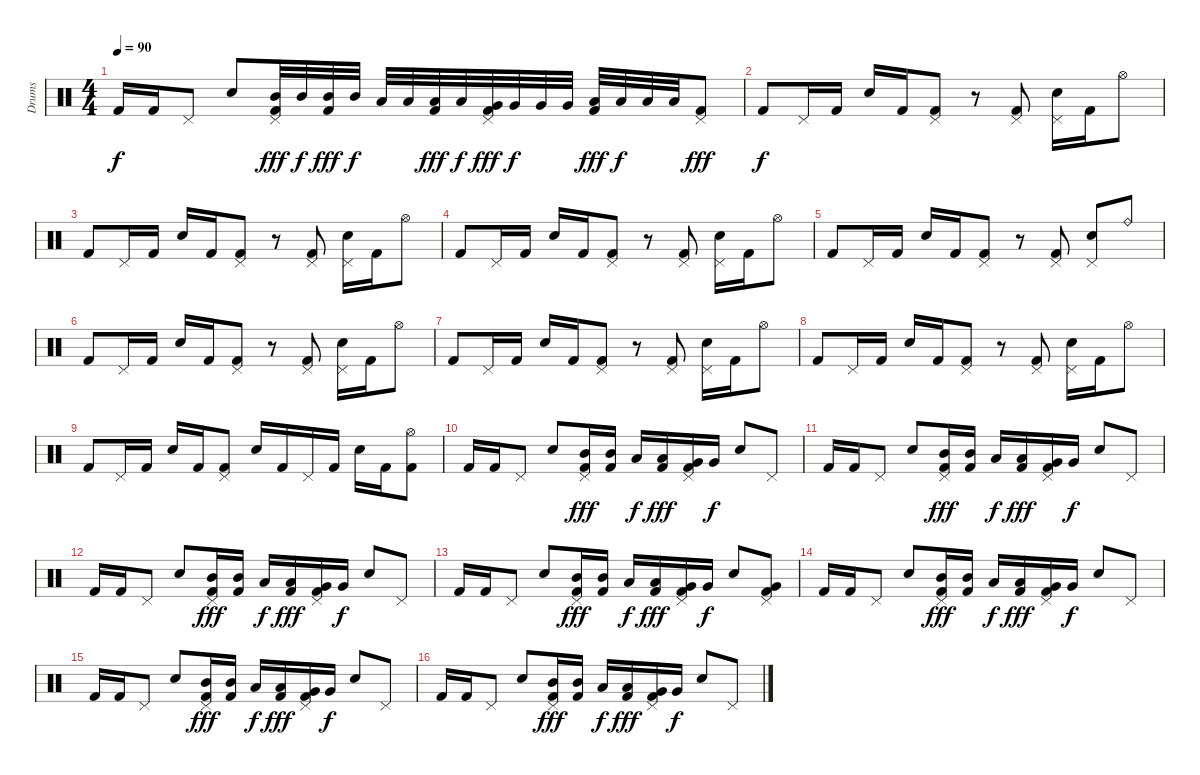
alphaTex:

\track ("Drums" "Drums") {instrument percussion}
\staff {score}
\articulation defaults
\ts (4 4)
\tempo 90
\clef neutral
\ks c "Kick (hit) 2".16{dy f} "Kick (hit) 2".16 "Pedal Hi-Hat (hit)".8 "Electric Snare (hit)".8
("Pedal Hi-Hat (hit)" "Mid Tom (hit)" "Kick (hit) 2").32{dy fff} "Mid Tom (hit)".32{dy f} ("Mid Tom (hit)" "Kick (hit) 2").32{dy fff} "Mid Tom (hit)".32{dy f} "Low Tom (hit)".32 "Low Tom (hit)".32 ("Low Tom (hit)" "Kick (hit) 2").32{dy fff} "Low Tom (hit)".32{dy f} ("Pedal Hi-Hat (hit)" "Very Low Tom (hit)" "Kick (hit) 2").32{dy fff} "Very Low Tom (hit)".32{dy f} "Very Low Tom (hit)".32 "Very Low Tom (hit)".32 ("Low Floor Tom (hit)" "Kick (hit) 2").32{dy fff} "Low Floor Tom (hit)".32{dy f} "Low Floor Tom (hit)".32 "Low Floor Tom (hit)".32 ("Pedal Hi-Hat (hit)" "Kick (hit) 2").8{dy fff} |
"Kick (hit) 2".8{dy f} "Pedal Hi-Hat (hit)".16 "Kick (hit) 2".16 "Electric Snare (hit)".16 "Kick (hit) 2".16 ("Pedal Hi-Hat (hit)" "Kick (hit) 2").8 r.8 ("Pedal Hi-Hat (hit)" "Kick (hit) 2").8 ("Pedal Hi-Hat (hit)" "Electric Snare (hit)").16 "Kick (hit) 2".16 "Hi-Hat (open)".8 |
"Kick (hit) 2".8 "Pedal Hi-Hat (hit)".16 "Kick (hit) 2".16 "Electric Snare (hit)".16 "Kick (hit) 2".16 ("Pedal Hi-Hat (hit)" "Kick (hit) 2").8 r.8 ("Pedal Hi-Hat (hit)" "Kick (hit) 2").8 ("Pedal Hi-Hat (hit)" "Electric Snare (hit)").16 "Kick (hit) 2".16 "Hi-Hat (open)".8 |
"Kick (hit) 2".8 "Pedal Hi-Hat (hit)".16 "Kick (hit) 2".16 "Electric Snare (hit)".16 "Kick (hit) 2".16 ("Pedal Hi-Hat (hit)" "Kick (hit) 2").8 r.8 ("Pedal Hi-Hat (hit)" "Kick (hit) 2").8 ("Pedal Hi-Hat (hit)" "Electric Snare (hit)").16 "Kick (hit) 2".16 "Hi-Hat (open)".8 |
"Kick (hit) 2".8 "Pedal Hi-Hat (hit)".16 "Kick (hit) 2".16 "Electric Snare (hit)".16 "Kick (hit) 2".16 ("Pedal Hi-Hat (hit)" "Kick (hit) 2").8 r.8 ("Pedal Hi-Hat (hit)" "Kick (hit) 2").8 ("Pedal Hi-Hat (hit)" "Electric Snare (hit)").8 "Ride (bell)".8 |
"Kick (hit) 2".8 "Pedal Hi-Hat (hit)".16 "Kick (hit) 2".16 "Electric Snare (hit)".16 "Kick (hit) 2".16 ("Pedal Hi-Hat (hit)" "Kick (hit) 2").8 r.8 ("Pedal Hi-Hat (hit)" "Kick (hit) 2").8 ("Pedal Hi-Hat (hit)" "Electric Snare (hit)").16 "Kick (hit) 2".16 "Hi-Hat (open)".8 |
"Kick (hit) 2".8 "Pedal Hi-Hat (hit)".16 "Kick (hit) 2".16 "Electric Snare (hit)".16 "Kick (hit) 2".16 ("Pedal Hi-Hat (hit)" "Kick (hit) 2").8 r.8 ("Pedal Hi-Hat (hit)" "Kick (hit) 2").8 ("Pedal Hi-Hat (hit)" "Electric Snare (hit)").16 "Kick (hit) 2".16 "Hi-Hat (open)".8 |
"Kick (hit) 2".8 "Pedal Hi-Hat (hit)".16 "Kick (hit) 2".16 "Electric Snare (hit)".16 "Kick (hit) 2".16 ("Pedal Hi-Hat (hit)" "Kick (hit) 2").8 r.8 ("Pedal Hi-Hat (hit)" "Kick (hit) 2").8 ("Pedal Hi-Hat (hit)" "Electric Snare (hit)").16 "Kick (hit) 2".16 "Hi-Hat (open)".8 |
"Kick (hit) 2".8 "Pedal Hi-Hat (hit)".16 "Kick (hit) 2".16 "Electric Snare (hit)".16 "Kick (hit) 2".16 ("Pedal Hi-Hat (hit)" "Kick (hit) 2").8 "Electric Snare (hit)".16 "Kick (hit) 2".16 "Pedal Hi-Hat (hit)".16 "Kick (hit) 2".16 "Electric Snare (hit)".16 "Kick (hit) 2".16 ("Hi-Hat (open)" "Kick (hit) 2").8 |
"Kick (hit) 2".16 "Kick (hit) 2".16 "Pedal Hi-Hat (hit)".8 "Electric Snare (hit)".8 ("Pedal Hi-Hat (hit)" "Mid Tom (hit)" "Kick (hit) 2").16{dy fff} ("Mid Tom (hit)" "Kick (hit) 2").16 "Low Tom (hit)".16{dy f} ("Low Tom (hit)" "Kick (hit) 2").16{dy fff} ("Pedal Hi-Hat (hit)" "Very Low Tom (hit)" "Kick (hit) 2").16 "Very Low Tom (hit)".16{dy f} "Electric Snare (hit)".8 "Pedal Hi-Hat (hit)".8 |
"Kick (hit) 2".16 "Kick (hit) 2".16 "Pedal Hi-Hat (hit)".8 "Electric Snare (hit)".8 ("Pedal Hi-Hat (hit)" "Mid Tom (hit)" "Kick (hit) 2").16{dy fff} ("Mid Tom (hit)" "Kick (hit) 2").16 "Low Tom (hit)".16{dy f} ("Low Tom (hit)" "Kick (hit) 2").16{dy fff} ("Pedal Hi-Hat (hit)" "Very Low Tom (hit)" "Kick (hit) 2").16 "Very Low Tom (hit)".16{dy f} "Electric Snare (hit)".8 "Pedal Hi-Hat (hit)".8 |
"Kick (hit) 2".16 "Kick (hit) 2".16 "Pedal Hi-Hat (hit)".8 "Electric Snare (hit)".8 ("Pedal Hi-Hat (hit)" "Mid Tom (hit)" "Kick (hit) 2").16{dy fff} ("Mid Tom (hit)" "Kick (hit) 2").16 "Low Tom (hit)".16{dy f} ("Low Tom (hit)" "Kick (hit) 2").16{dy fff} ("Pedal Hi-Hat (hit)" "Very Low Tom (hit)" "Kick (hit) 2").16 "Very Low Tom (hit)".16{dy f} "Electric Snare (hit)".8 "Pedal Hi-Hat (hit)".8 |
"Kick (hit) 2".16 "Kick (hit) 2".16 "Pedal Hi-Hat (hit)".8 "Electric Snare (hit)".8 ("Pedal Hi-Hat (hit)" "Mid Tom (hit)" "Kick (hit) 2").16{dy fff} ("Mid Tom (hit)" "Kick (hit) 2").16 "Low Tom (hit)".16{dy f} ("Low Tom (hit)" "Kick (hit) 2").16{dy fff} ("Pedal Hi-Hat (hit)" "Very Low Tom (hit)" "Kick (hit) 2").16 "Very Low Tom (hit)".16{dy f} "Electric Snare (hit)".8 ("Pedal Hi-Hat (hit)" "Very Low Tom (hit)" "Kick (hit) 2").8 |
"Kick (hit) 2".16 "Kick (hit) 2".16 "Pedal Hi-Hat (hit)".8 "Electric Snare (hit)".8 ("Pedal Hi-Hat (hit)" "Mid Tom (hit)" "Kick (hit) 2").16{dy fff} ("Mid Tom (hit)" "Kick (hit) 2").16 "Low Tom (hit)".16{dy f} ("Low Tom (hit)" "Kick (hit) 2").16{dy fff} ("Pedal Hi-Hat (hit)" "Very Low Tom (hit)" "Kick (hit) 2").16 "Very Low Tom (hit)".16{dy f} "Electric Snare (hit)".8 "Pedal Hi-Hat (hit)".8 |
"Kick (hit) 2".16 "Kick (hit) 2".16 "Pedal Hi-Hat (hit)".8 "Electric Snare (hit)".8 ("Pedal Hi-Hat (hit)" "Mid Tom (hit)" "Kick (hit) 2").16{dy fff} ("Mid Tom (hit)" "Kick (hit) 2").16 "Low Tom (hit)".16{dy f} ("Low Tom (hit)" "Kick (hit) 2").16{dy fff} ("Pedal Hi-Hat (hit)" "Very Low Tom (hit)" "Kick (hit) 2").16 "Very Low Tom (hit)".16{dy f} "Electric Snare (hit)".8 "Pedal Hi-Hat (hit)".8 |
"Kick (hit) 2".16 "Kick (hit) 2".16 "Pedal Hi-Hat (hit)".8 "Electric Snare (hit)".8 ("Pedal Hi-Hat (hit)" "Mid Tom (hit)" "Kick (hit) 2").16{dy fff} ("Mid Tom (hit)" "Kick (hit) 2").16 "Low Tom (hit)".16{dy f} ("Low Tom (hit)" "Kick (hit) 2").16{dy fff} ("Pedal Hi-Hat (hit)" "Very Low Tom (hit)" "Kick (hit) 2").16 "Very Low Tom (hit)".16{dy f} "Electric Snare (hit)".8 "Pedal Hi-Hat (hit)".8
